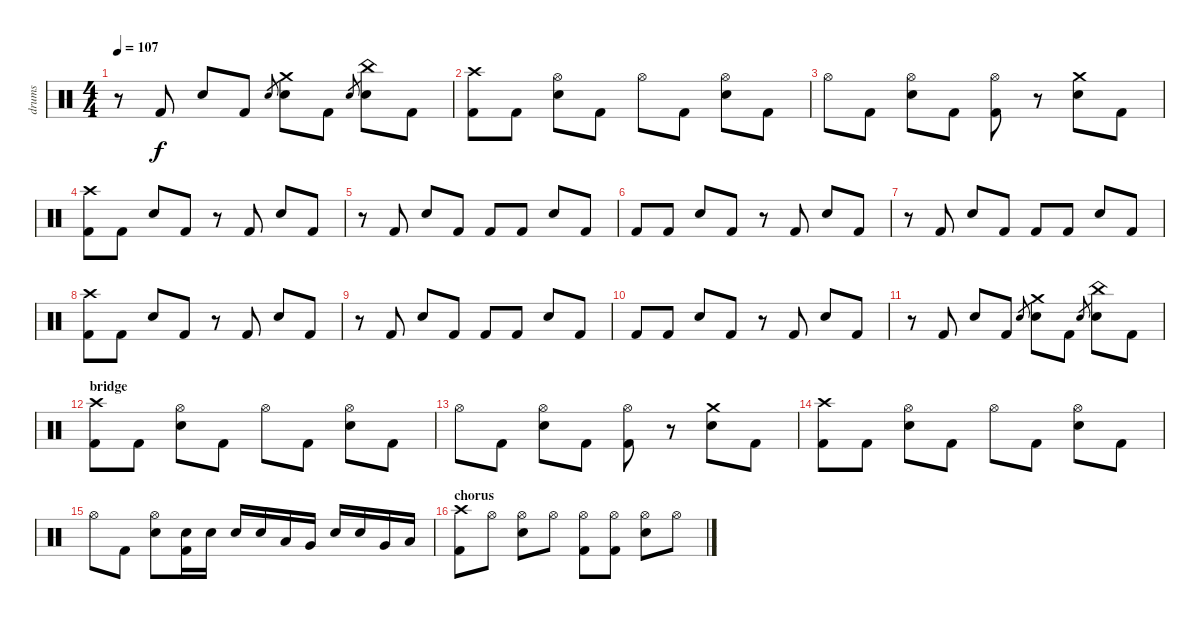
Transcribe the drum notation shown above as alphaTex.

\track ("drums" "drums") {instrument percussion}
\staff {score}
\articulation defaults
\ts (4 4)
\tempo 107
\clef neutral
\ks c
r.8{dy f} "Kick (hit) 2".8 "Electric Snare (hit)".8 "Kick (hit) 2".8 "Electric Snare (hit)".8{gr} ("Crash medium (hit)" "Electric Snare (hit)").8 "Kick (hit) 2".8 "Electric Snare (hit)".8{gr} ("China (hit)" "Electric Snare (hit)").8 "Kick (hit) 2".8 |
("Crash high (hit)" "Kick (hit) 2").8 "Kick (hit) 2".8 ("Hi-Hat (open)" "Electric Snare (hit)").8 "Kick (hit) 2".8 "Hi-Hat (open)".8 "Kick (hit) 2".8 ("Hi-Hat (open)" "Electric Snare (hit)").8 "Kick (hit) 2".8 |
"Hi-Hat (open)".8 "Kick (hit) 2".8 ("Hi-Hat (open)" "Electric Snare (hit)").8 "Kick (hit) 2".8 ("Hi-Hat (open)" "Kick (hit) 2").8 r.8 ("Crash medium (hit)" "Electric Snare (hit)").8 "Kick (hit) 2".8 |
("Crash high (hit)" "Kick (hit) 2").8 "Kick (hit) 2".8 "Electric Snare (hit)".8 "Kick (hit) 2".8 r.8 "Kick (hit) 2".8 "Electric Snare (hit)".8 "Kick (hit) 2".8 |
r.8 "Kick (hit) 2".8 "Electric Snare (hit)".8 "Kick (hit) 2".8 "Kick (hit) 2".8 "Kick (hit) 2".8 "Electric Snare (hit)".8 "Kick (hit) 2".8 |
"Kick (hit) 2".8 "Kick (hit) 2".8 "Electric Snare (hit)".8 "Kick (hit) 2".8 r.8 "Kick (hit) 2".8 "Electric Snare (hit)".8 "Kick (hit) 2".8 |
r.8 "Kick (hit) 2".8 "Electric Snare (hit)".8 "Kick (hit) 2".8 "Kick (hit) 2".8 "Kick (hit) 2".8 "Electric Snare (hit)".8 "Kick (hit) 2".8 |
("Crash high (hit)" "Kick (hit) 2").8 "Kick (hit) 2".8 "Electric Snare (hit)".8 "Kick (hit) 2".8 r.8 "Kick (hit) 2".8 "Electric Snare (hit)".8 "Kick (hit) 2".8 |
r.8 "Kick (hit) 2".8 "Electric Snare (hit)".8 "Kick (hit) 2".8 "Kick (hit) 2".8 "Kick (hit) 2".8 "Electric Snare (hit)".8 "Kick (hit) 2".8 |
"Kick (hit) 2".8 "Kick (hit) 2".8 "Electric Snare (hit)".8 "Kick (hit) 2".8 r.8 "Kick (hit) 2".8 "Electric Snare (hit)".8 "Kick (hit) 2".8 |
r.8 "Kick (hit) 2".8 "Electric Snare (hit)".8 "Kick (hit) 2".8 "Electric Snare (hit)".8{gr} ("Crash medium (hit)" "Electric Snare (hit)").8 "Kick (hit) 2".8 "Electric Snare (hit)".8{gr} ("China (hit)" "Electric Snare (hit)").8 "Kick (hit) 2".8 |
\section ("" "bridge")
("Crash high (hit)" "Kick (hit) 2").8 "Kick (hit) 2".8 ("Hi-Hat (open)" "Electric Snare (hit)").8 "Kick (hit) 2".8 "Hi-Hat (open)".8 "Kick (hit) 2".8 ("Hi-Hat (open)" "Electric Snare (hit)").8 "Kick (hit) 2".8 |
"Hi-Hat (open)".8 "Kick (hit) 2".8 ("Hi-Hat (open)" "Electric Snare (hit)").8 "Kick (hit) 2".8 ("Hi-Hat (open)" "Kick (hit) 2").8 r.8 ("Crash medium (hit)" "Electric Snare (hit)").8 "Kick (hit) 2".8 |
("Crash high (hit)" "Kick (hit) 2").8 "Kick (hit) 2".8 ("Hi-Hat (open)" "Electric Snare (hit)").8 "Kick (hit) 2".8 "Hi-Hat (open)".8 "Kick (hit) 2".8 ("Hi-Hat (open)" "Electric Snare (hit)").8 "Kick (hit) 2".8 |
"Hi-Hat (open)".8 "Kick (hit) 2".8 ("Hi-Hat (open)" "Electric Snare (hit)").8 ("Electric Snare (hit)" "Kick (hit) 2").16 "Electric Snare (hit)".16 "Electric Snare (hit)".16 "Electric Snare (hit)".16 "Low Tom (hit)".16 "Very Low Tom (hit)".16 "Electric Snare (hit)".16 "Electric Snare (hit)".16 "Very Low Tom (hit)".16 "Low Floor Tom (hit)".16 |
\section ("" "chorus")
("Crash high (hit)" "Kick (hit) 2").8 "Hi-Hat (open)".8 ("Hi-Hat (open)" "Electric Snare (hit)").8 "Hi-Hat (open)".8 ("Hi-Hat (open)" "Kick (hit) 2").8 ("Hi-Hat (open)" "Kick (hit) 2").8 ("Hi-Hat (open)" "Electric Snare (hit)").8 "Hi-Hat (open)".8
